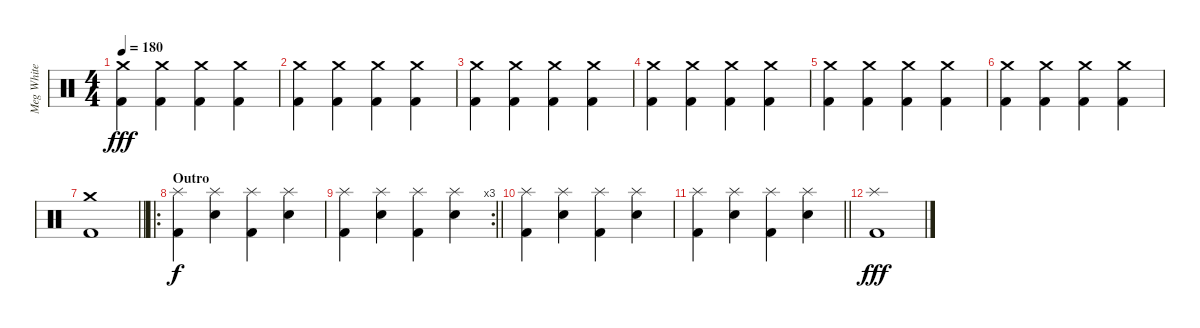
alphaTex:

\track ("Meg White (Drums)" "Meg White ") {instrument percussion}
\staff {score}
\articulation defaults
\ts (4 4)
\tempo 180
\clef neutral
\ks c
("Kick (hit) 2" "Crash medium (hit)").4{dy fff} ("Kick (hit) 2" "Crash medium (hit)").4 ("Kick (hit) 2" "Crash medium (hit)").4 ("Kick (hit) 2" "Crash medium (hit)").4 |
("Kick (hit) 2" "Crash medium (hit)").4 ("Kick (hit) 2" "Crash medium (hit)").4 ("Kick (hit) 2" "Crash medium (hit)").4 ("Kick (hit) 2" "Crash medium (hit)").4 |
("Kick (hit) 2" "Crash medium (hit)").4 ("Kick (hit) 2" "Crash medium (hit)").4 ("Kick (hit) 2" "Crash medium (hit)").4 ("Kick (hit) 2" "Crash medium (hit)").4 |
("Kick (hit) 2" "Crash medium (hit)").4 ("Kick (hit) 2" "Crash medium (hit)").4 ("Kick (hit) 2" "Crash medium (hit)").4 ("Kick (hit) 2" "Crash medium (hit)").4 |
("Kick (hit) 2" "Crash medium (hit)").4 ("Kick (hit) 2" "Crash medium (hit)").4 ("Kick (hit) 2" "Crash medium (hit)").4 ("Kick (hit) 2" "Crash medium (hit)").4 |
("Kick (hit) 2" "Crash medium (hit)").4 ("Kick (hit) 2" "Crash medium (hit)").4 ("Kick (hit) 2" "Crash medium (hit)").4 ("Kick (hit) 2" "Crash medium (hit)").4 |
\barLineRight lightlight
("Kick (hit) 2" "Crash medium (hit)").1 |
\ro
\section ("" "Outro")
("Kick (hit) 2" "Splash (hit)").4{dy f} ("Snare (hit) 2" "Splash (hit)").4 ("Kick (hit) 2" "Splash (hit)").4 ("Snare (hit) 2" "Splash (hit)").4 |
\rc 3
\barLineRight lightlight
("Kick (hit) 2" "Splash (hit)").4 ("Snare (hit) 2" "Splash (hit)").4 ("Kick (hit) 2" "Splash (hit)").4 ("Snare (hit) 2" "Splash (hit)").4 |
("Kick (hit) 2" "Splash (hit)").4 ("Snare (hit) 2" "Splash (hit)").4 ("Kick (hit) 2" "Splash (hit)").4 ("Snare (hit) 2" "Splash (hit)").4 |
\barLineRight lightlight
("Kick (hit) 2" "Splash (hit)").4 ("Snare (hit) 2" "Splash (hit)").4 ("Kick (hit) 2" "Splash (hit)").4 ("Snare (hit) 2" "Splash (hit)").4 |
("Kick (hit) 2" "Splash (hit)").1{dy fff}
